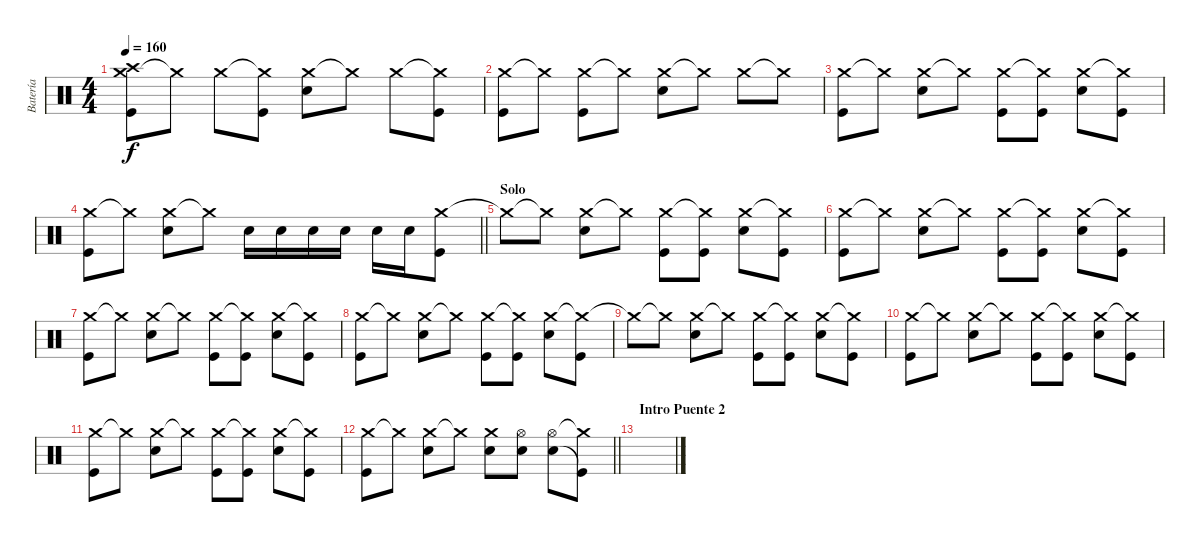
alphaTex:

\track ("Batería" "Batería") {instrument percussion}
\staff {score}
\articulation defaults
\ts (4 4)
\tempo 160
\clef neutral
\ks c
("Crash medium (hit)" "Kick (hit)" "Crash high (hit)").8{dy f} "Crash medium (hit)"{t}.8 "Crash medium (hit)".8 ("Crash medium (hit)"{t} "Kick (hit)").8 ("Crash medium (hit)" "Electric Snare (hit)").8 "Crash medium (hit)"{t}.8 "Crash medium (hit)".8 ("Crash medium (hit)"{t} "Kick (hit)").8 |
("Crash medium (hit)" "Kick (hit)").8 "Crash medium (hit)"{t}.8 ("Crash medium (hit)" "Kick (hit)").8 "Crash medium (hit)"{t}.8 ("Crash medium (hit)" "Electric Snare (hit)").8 "Crash medium (hit)"{t}.8 "Crash medium (hit)".8 "Crash medium (hit)"{t}.8 |
("Crash medium (hit)" "Kick (hit)").8 "Crash medium (hit)"{t}.8 ("Crash medium (hit)" "Electric Snare (hit)").8 "Crash medium (hit)"{t}.8 ("Crash medium (hit)" "Kick (hit)").8 ("Crash medium (hit)"{t} "Kick (hit)").8 ("Crash medium (hit)" "Electric Snare (hit)").8 ("Crash medium (hit)"{t} "Kick (hit)").8 |
\barLineRight lightlight
("Crash medium (hit)" "Kick (hit)").8 "Crash medium (hit)"{t}.8 ("Crash medium (hit)" "Electric Snare (hit)").8 "Crash medium (hit)"{t}.8 "Electric Snare (hit)".16 "Electric Snare (hit)".16 "Electric Snare (hit)".16 "Electric Snare (hit)".16 "Electric Snare (hit)".16 "Electric Snare (hit)".16 ("Crash medium (hit)" "Kick (hit)").8 |
\section ("" "Solo")
"Crash medium (hit)"{t}.8 "Crash medium (hit)"{t}.8 ("Crash medium (hit)" "Electric Snare (hit)").8 "Crash medium (hit)"{t}.8 ("Crash medium (hit)" "Kick (hit)").8 ("Crash medium (hit)"{t} "Kick (hit)").8 ("Crash medium (hit)" "Electric Snare (hit)").8 ("Crash medium (hit)"{t} "Kick (hit)").8 |
("Crash medium (hit)" "Kick (hit)").8 "Crash medium (hit)"{t}.8 ("Crash medium (hit)" "Electric Snare (hit)").8 "Crash medium (hit)"{t}.8 ("Crash medium (hit)" "Kick (hit)").8 ("Crash medium (hit)"{t} "Kick (hit)").8 ("Crash medium (hit)" "Electric Snare (hit)").8 ("Crash medium (hit)"{t} "Kick (hit)").8 |
("Crash medium (hit)" "Kick (hit)").8 "Crash medium (hit)"{t}.8 ("Crash medium (hit)" "Electric Snare (hit)").8 "Crash medium (hit)"{t}.8 ("Crash medium (hit)" "Kick (hit)").8 ("Crash medium (hit)"{t} "Kick (hit)").8 ("Crash medium (hit)" "Electric Snare (hit)").8 ("Crash medium (hit)"{t} "Kick (hit)").8 |
("Crash medium (hit)" "Kick (hit)").8 "Crash medium (hit)"{t}.8 ("Crash medium (hit)" "Electric Snare (hit)").8 "Crash medium (hit)"{t}.8 ("Crash medium (hit)" "Kick (hit)").8 ("Crash medium (hit)"{t} "Kick (hit)").8 ("Crash medium (hit)" "Electric Snare (hit)").8 ("Crash medium (hit)"{t} "Kick (hit)").8 |
"Crash medium (hit)"{t}.8 "Crash medium (hit)"{t}.8 ("Crash medium (hit)" "Electric Snare (hit)").8 "Crash medium (hit)"{t}.8 ("Crash medium (hit)" "Kick (hit)").8 ("Crash medium (hit)"{t} "Kick (hit)").8 ("Crash medium (hit)" "Electric Snare (hit)").8 ("Crash medium (hit)"{t} "Kick (hit)").8 |
("Crash medium (hit)" "Kick (hit)").8 "Crash medium (hit)"{t}.8 ("Crash medium (hit)" "Electric Snare (hit)").8 "Crash medium (hit)"{t}.8 ("Crash medium (hit)" "Kick (hit)").8 ("Crash medium (hit)"{t} "Kick (hit)").8 ("Crash medium (hit)" "Electric Snare (hit)").8 ("Crash medium (hit)"{t} "Kick (hit)").8 |
("Crash medium (hit)" "Kick (hit)").8 "Crash medium (hit)"{t}.8 ("Crash medium (hit)" "Electric Snare (hit)").8 "Crash medium (hit)"{t}.8 ("Crash medium (hit)" "Kick (hit)").8 ("Crash medium (hit)"{t} "Kick (hit)").8 ("Crash medium (hit)" "Electric Snare (hit)").8 ("Crash medium (hit)"{t} "Kick (hit)").8 |
\barLineRight lightlight
("Crash medium (hit)" "Kick (hit)").8 "Crash medium (hit)"{t}.8 ("Crash medium (hit)" "Electric Snare (hit)").8 "Crash medium (hit)"{t}.8 ("Crash medium (hit)" "Electric Snare (hit)").8 ("Hi-Hat (open)" "Electric Snare (hit)").8 ("Hi-Hat (open)" "Electric Snare (hit)").8 ("Crash medium (hit)"{t} "Kick (hit)"{t}).8 |
\section ("" "Intro Puente 2")
